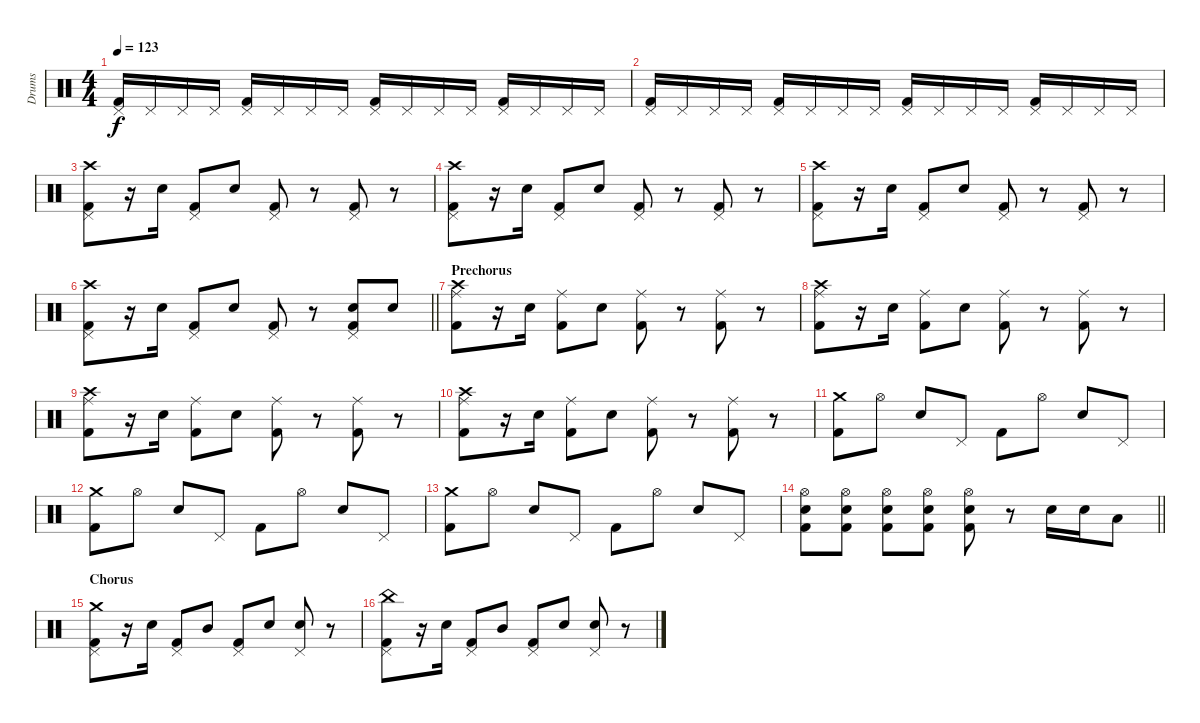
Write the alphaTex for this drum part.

\track ("Drums" "Drums") {instrument percussion}
\staff {score}
\articulation defaults
\ts (4 4)
\tempo 123
\clef neutral
\ks c
("Pedal Hi-Hat (hit)" "Kick (hit) 2").16{dy f} "Pedal Hi-Hat (hit)".16 "Pedal Hi-Hat (hit)".16 "Pedal Hi-Hat (hit)".16 ("Pedal Hi-Hat (hit)" "Kick (hit) 2").16 "Pedal Hi-Hat (hit)".16 "Pedal Hi-Hat (hit)".16 "Pedal Hi-Hat (hit)".16 ("Pedal Hi-Hat (hit)" "Kick (hit) 2").16 "Pedal Hi-Hat (hit)".16 "Pedal Hi-Hat (hit)".16 "Pedal Hi-Hat (hit)".16 ("Pedal Hi-Hat (hit)" "Kick (hit) 2").16 "Pedal Hi-Hat (hit)".16 "Pedal Hi-Hat (hit)".16 "Pedal Hi-Hat (hit)".16 |
("Pedal Hi-Hat (hit)" "Kick (hit) 2").16 "Pedal Hi-Hat (hit)".16 "Pedal Hi-Hat (hit)".16 "Pedal Hi-Hat (hit)".16 ("Pedal Hi-Hat (hit)" "Kick (hit) 2").16 "Pedal Hi-Hat (hit)".16 "Pedal Hi-Hat (hit)".16 "Pedal Hi-Hat (hit)".16 ("Pedal Hi-Hat (hit)" "Kick (hit) 2").16 "Pedal Hi-Hat (hit)".16 "Pedal Hi-Hat (hit)".16 "Pedal Hi-Hat (hit)".16 ("Pedal Hi-Hat (hit)" "Kick (hit) 2").16 "Pedal Hi-Hat (hit)".16 "Pedal Hi-Hat (hit)".16 "Pedal Hi-Hat (hit)".16 |
("Crash high (hit)" "Pedal Hi-Hat (hit)" "Kick (hit) 2").8 r.16 "Snare (hit) 2".16 ("Pedal Hi-Hat (hit)" "Kick (hit) 2").8 "Snare (hit) 2".8 ("Pedal Hi-Hat (hit)" "Kick (hit) 2").8 r.8 ("Pedal Hi-Hat (hit)" "Kick (hit) 2").8 r.8 |
("Crash high (hit)" "Pedal Hi-Hat (hit)" "Kick (hit) 2").8 r.16 "Snare (hit) 2".16 ("Pedal Hi-Hat (hit)" "Kick (hit) 2").8 "Snare (hit) 2".8 ("Pedal Hi-Hat (hit)" "Kick (hit) 2").8 r.8 ("Pedal Hi-Hat (hit)" "Kick (hit) 2").8 r.8 |
("Crash high (hit)" "Pedal Hi-Hat (hit)" "Kick (hit) 2").8 r.16 "Snare (hit) 2".16 ("Pedal Hi-Hat (hit)" "Kick (hit) 2").8 "Snare (hit) 2".8 ("Pedal Hi-Hat (hit)" "Kick (hit) 2").8 r.8 ("Pedal Hi-Hat (hit)" "Kick (hit) 2").8 r.8 |
\barLineRight lightlight
("Crash high (hit)" "Pedal Hi-Hat (hit)" "Kick (hit) 2").8 r.16 "Snare (hit) 2".16 ("Pedal Hi-Hat (hit)" "Kick (hit) 2").8 "Snare (hit) 2".8 ("Pedal Hi-Hat (hit)" "Kick (hit) 2").8 r.8 ("Pedal Hi-Hat (hit)" "Snare (hit) 2" "Kick (hit) 2").8 "Snare (hit) 2".8 |
\section ("" "Prechorus")
("Crash high (hit)" "Ride (middle)" "Kick (hit) 2").8 r.16 "Snare (hit) 2".16 ("Ride (middle)" "Kick (hit) 2").8 "Snare (hit) 2".8 ("Ride (middle)" "Kick (hit) 2").8 r.8 ("Ride (middle)" "Kick (hit) 2").8 r.8 |
("Crash high (hit)" "Ride (middle)" "Kick (hit) 2").8 r.16 "Snare (hit) 2".16 ("Ride (middle)" "Kick (hit) 2").8 "Snare (hit) 2".8 ("Ride (middle)" "Kick (hit) 2").8 r.8 ("Ride (middle)" "Kick (hit) 2").8 r.8 |
("Crash high (hit)" "Ride (middle)" "Kick (hit) 2").8 r.16 "Snare (hit) 2".16 ("Ride (middle)" "Kick (hit) 2").8 "Snare (hit) 2".8 ("Ride (middle)" "Kick (hit) 2").8 r.8 ("Ride (middle)" "Kick (hit) 2").8 r.8 |
("Crash high (hit)" "Ride (middle)" "Kick (hit) 2").8 r.16 "Snare (hit) 2".16 ("Ride (middle)" "Kick (hit) 2").8 "Snare (hit) 2".8 ("Ride (middle)" "Kick (hit) 2").8 r.8 ("Ride (middle)" "Kick (hit) 2").8 r.8 |
("Crash medium (hit)" "Kick (hit) 2").8 "Hi-Hat (open)".8 "Snare (hit) 2".8 "Pedal Hi-Hat (hit)".8 "Kick (hit) 2".8 "Hi-Hat (open)".8 "Snare (hit) 2".8 "Pedal Hi-Hat (hit)".8 |
("Crash medium (hit)" "Kick (hit) 2").8 "Hi-Hat (open)".8 "Snare (hit) 2".8 "Pedal Hi-Hat (hit)".8 "Kick (hit) 2".8 "Hi-Hat (open)".8 "Snare (hit) 2".8 "Pedal Hi-Hat (hit)".8 |
("Crash medium (hit)" "Kick (hit) 2").8 "Hi-Hat (open)".8 "Snare (hit) 2".8 "Pedal Hi-Hat (hit)".8 "Kick (hit) 2".8 "Hi-Hat (open)".8 "Snare (hit) 2".8 "Pedal Hi-Hat (hit)".8 |
\barLineRight lightlight
("Hi-Hat (open)" "Snare (hit) 2" "Kick (hit) 2").8 ("Hi-Hat (open)" "Snare (hit) 2" "Kick (hit) 2").8 ("Hi-Hat (open)" "Snare (hit) 2" "Kick (hit) 2").8 ("Hi-Hat (open)" "Snare (hit) 2" "Kick (hit) 2").8 ("Hi-Hat (open)" "Snare (hit) 2" "Kick (hit) 2").8 r.8 "Snare (hit) 2".16 "Snare (hit) 2".16 "Low Tom (hit)".8 |
\section ("" "Chorus")
("Crash medium (hit)" "Pedal Hi-Hat (hit)" "Kick (hit) 2").8 r.16 "Snare (hit) 2".16 ("Pedal Hi-Hat (hit)" "Kick (hit) 2").8 "Mid Tom (hit)".8 ("Pedal Hi-Hat (hit)" "Kick (hit) 2").8 "Snare (hit) 2".8 ("Pedal Hi-Hat (hit)" "Snare (hit) 2").8 r.8 |
("China (hit)" "Pedal Hi-Hat (hit)" "Kick (hit) 2").8 r.16 "Snare (hit) 2".16 ("Pedal Hi-Hat (hit)" "Kick (hit) 2").8 "Mid Tom (hit)".8 ("Pedal Hi-Hat (hit)" "Kick (hit) 2").8 "Snare (hit) 2".8 ("Pedal Hi-Hat (hit)" "Snare (hit) 2").8 r.8
